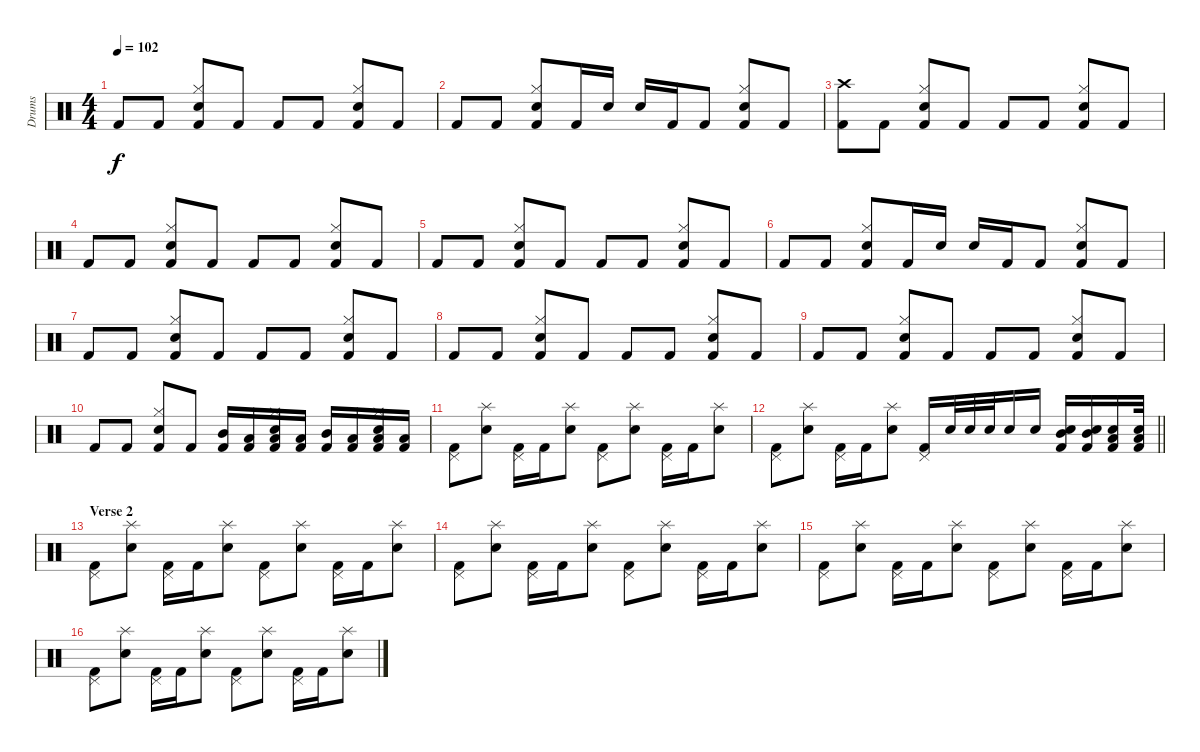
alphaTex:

\track ("Drums" "Drums") {instrument percussion}
\staff {score}
\articulation defaults
\ts (4 4)
\tempo 102
\clef neutral
\ks c "Kick (hit) 2".8{dy f} "Kick (hit) 2".8
("Hi-Hat (closed)" "Snare (hit) 2" "Kick (hit) 2").8 "Kick (hit) 2".8 "Kick (hit) 2".8 "Kick (hit) 2".8 ("Hi-Hat (closed)" "Snare (hit) 2" "Kick (hit) 2").8 "Kick (hit) 2".8 |
"Kick (hit) 2".8 "Kick (hit) 2".8 ("Hi-Hat (closed)" "Snare (hit) 2" "Kick (hit) 2").8 "Kick (hit) 2".16 "Snare (hit) 2".16 "Snare (hit) 2".16 "Kick (hit) 2".16 "Kick (hit) 2".8 ("Hi-Hat (closed)" "Snare (hit) 2" "Kick (hit) 2").8 "Kick (hit) 2".8 |
("Crash high (hit)" "Kick (hit) 2").8 "Kick (hit) 2".8 ("Hi-Hat (closed)" "Snare (hit) 2" "Kick (hit) 2").8 "Kick (hit) 2".8 "Kick (hit) 2".8 "Kick (hit) 2".8 ("Hi-Hat (closed)" "Snare (hit) 2" "Kick (hit) 2").8 "Kick (hit) 2".8 |
"Kick (hit) 2".8 "Kick (hit) 2".8 ("Hi-Hat (closed)" "Snare (hit) 2" "Kick (hit) 2").8 "Kick (hit) 2".8 "Kick (hit) 2".8 "Kick (hit) 2".8 ("Hi-Hat (closed)" "Snare (hit) 2" "Kick (hit) 2").8 "Kick (hit) 2".8 |
"Kick (hit) 2".8 "Kick (hit) 2".8 ("Hi-Hat (closed)" "Snare (hit) 2" "Kick (hit) 2").8 "Kick (hit) 2".8 "Kick (hit) 2".8 "Kick (hit) 2".8 ("Hi-Hat (closed)" "Snare (hit) 2" "Kick (hit) 2").8 "Kick (hit) 2".8 |
"Kick (hit) 2".8 "Kick (hit) 2".8 ("Hi-Hat (closed)" "Snare (hit) 2" "Kick (hit) 2").8 "Kick (hit) 2".16 "Snare (hit) 2".16 "Snare (hit) 2".16 "Kick (hit) 2".16 "Kick (hit) 2".8 ("Hi-Hat (closed)" "Snare (hit) 2" "Kick (hit) 2").8 "Kick (hit) 2".8 |
"Kick (hit) 2".8 "Kick (hit) 2".8 ("Hi-Hat (closed)" "Snare (hit) 2" "Kick (hit) 2").8 "Kick (hit) 2".8 "Kick (hit) 2".8 "Kick (hit) 2".8 ("Hi-Hat (closed)" "Snare (hit) 2" "Kick (hit) 2").8 "Kick (hit) 2".8 |
"Kick (hit) 2".8 "Kick (hit) 2".8 ("Hi-Hat (closed)" "Snare (hit) 2" "Kick (hit) 2").8 "Kick (hit) 2".8 "Kick (hit) 2".8 "Kick (hit) 2".8 ("Hi-Hat (closed)" "Snare (hit) 2" "Kick (hit) 2").8 "Kick (hit) 2".8 |
"Kick (hit) 2".8 "Kick (hit) 2".8 ("Hi-Hat (closed)" "Snare (hit) 2" "Kick (hit) 2").8 "Kick (hit) 2".8 "Kick (hit) 2".8 "Kick (hit) 2".8 ("Hi-Hat (closed)" "Snare (hit) 2" "Kick (hit) 2").8 "Kick (hit) 2".8 |
"Kick (hit) 2".8 "Kick (hit) 2".8 ("Hi-Hat (closed)" "Snare (hit) 2" "Kick (hit) 2").8 "Kick (hit) 2".8 ("Mid Tom (hit)" "Kick (hit) 2").16 ("Low Tom (hit)" "Kick (hit) 2").16 ("Low Tom (hit)" "Hi-Hat (closed)" "Snare (hit) 2" "Kick (hit) 2").16 ("Low Tom (hit)" "Kick (hit) 2").16 ("Mid Tom (hit)" "Kick (hit) 2").16 ("Low Tom (hit)" "Kick (hit) 2").16 ("Low Tom (hit)" "Hi-Hat (closed)" "Snare (hit) 2" "Kick (hit) 2").16 ("Low Tom (hit)" "Kick (hit) 2").16 |
("Pedal Hi-Hat (hit)" "Kick (hit) 2").8 ("Splash (hit)" "Electric Snare (hit)").8 ("Pedal Hi-Hat (hit)" "Kick (hit) 2").16 "Kick (hit) 2".16 ("Splash (hit)" "Electric Snare (hit)").8 ("Pedal Hi-Hat (hit)" "Kick (hit) 2").8 ("Splash (hit)" "Electric Snare (hit)").8 ("Pedal Hi-Hat (hit)" "Kick (hit) 2").16 "Kick (hit) 2".16 ("Splash (hit)" "Electric Snare (hit)").8 |
\barLineRight lightlight
("Pedal Hi-Hat (hit)" "Kick (hit) 2").8 ("Splash (hit)" "Electric Snare (hit)").8 ("Pedal Hi-Hat (hit)" "Kick (hit) 2").16 "Kick (hit) 2".16 ("Splash (hit)" "Electric Snare (hit)").8 ("Pedal Hi-Hat (hit)" "Kick (hit) 2").16 "Snare (hit) 2".32 "Snare (hit) 2".32 "Snare (hit) 2".32 "Snare (hit) 2".16 "Snare (hit) 2".16 ("Mid Tom (hit)" "Kick (hit) 2" "Snare (hit) 2").16 ("Mid Tom (hit)" "Kick (hit) 2" "Snare (hit) 2").16 ("Low Tom (hit)" "Kick (hit) 2" "Snare (hit) 2").16 ("Low Tom (hit)" "Kick (hit) 2" "Snare (hit) 2").32 |
\section ("" "Verse 2")
("Pedal Hi-Hat (hit)" "Kick (hit) 2").8 ("Splash (hit)" "Electric Snare (hit)").8 ("Pedal Hi-Hat (hit)" "Kick (hit) 2").16 "Kick (hit) 2".16 ("Splash (hit)" "Electric Snare (hit)").8 ("Pedal Hi-Hat (hit)" "Kick (hit) 2").8 ("Splash (hit)" "Electric Snare (hit)").8 ("Pedal Hi-Hat (hit)" "Kick (hit) 2").16 "Kick (hit) 2".16 ("Splash (hit)" "Electric Snare (hit)").8 |
("Pedal Hi-Hat (hit)" "Kick (hit) 2").8 ("Splash (hit)" "Electric Snare (hit)").8 ("Pedal Hi-Hat (hit)" "Kick (hit) 2").16 "Kick (hit) 2".16 ("Splash (hit)" "Electric Snare (hit)").8 ("Pedal Hi-Hat (hit)" "Kick (hit) 2").8 ("Splash (hit)" "Electric Snare (hit)").8 ("Pedal Hi-Hat (hit)" "Kick (hit) 2").16 "Kick (hit) 2".16 ("Splash (hit)" "Electric Snare (hit)").8 |
("Pedal Hi-Hat (hit)" "Kick (hit) 2").8 ("Splash (hit)" "Electric Snare (hit)").8 ("Pedal Hi-Hat (hit)" "Kick (hit) 2").16 "Kick (hit) 2".16 ("Splash (hit)" "Electric Snare (hit)").8 ("Pedal Hi-Hat (hit)" "Kick (hit) 2").8 ("Splash (hit)" "Electric Snare (hit)").8 ("Pedal Hi-Hat (hit)" "Kick (hit) 2").16 "Kick (hit) 2".16 ("Splash (hit)" "Electric Snare (hit)").8 |
("Pedal Hi-Hat (hit)" "Kick (hit) 2").8 ("Splash (hit)" "Electric Snare (hit)").8 ("Pedal Hi-Hat (hit)" "Kick (hit) 2").16 "Kick (hit) 2".16 ("Splash (hit)" "Electric Snare (hit)").8 ("Pedal Hi-Hat (hit)" "Kick (hit) 2").8 ("Splash (hit)" "Electric Snare (hit)").8 ("Pedal Hi-Hat (hit)" "Kick (hit) 2").16 "Kick (hit) 2".16 ("Splash (hit)" "Electric Snare (hit)").8
